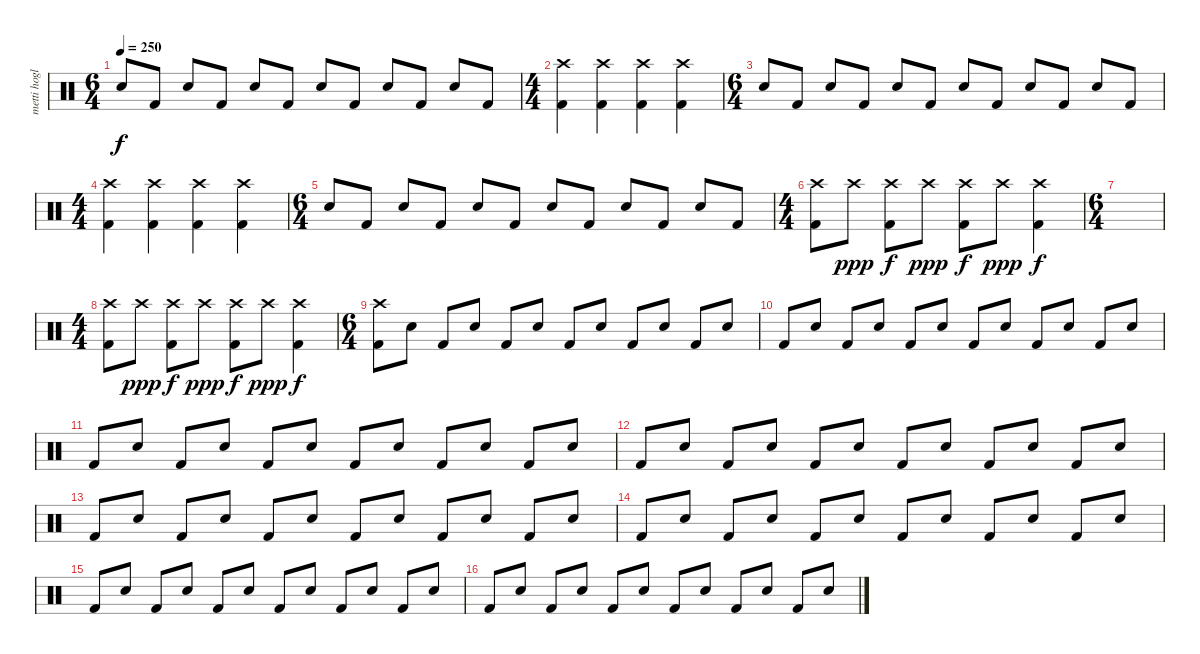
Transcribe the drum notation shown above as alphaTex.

\track ("metti hoglan" "metti hogl") {instrument percussion}
\staff {score}
\articulation defaults
\ts (6 4)
\tempo 250
\clef neutral
\ks c "Snare (hit) 2".8{dy f} "Kick (hit) 2".8 "Snare (hit) 2".8 "Kick (hit) 2".8 "Snare (hit) 2".8 "Kick (hit) 2".8 "Snare (hit) 2".8 "Kick (hit) 2".8 "Snare (hit) 2".8 "Kick (hit) 2".8 "Snare (hit) 2".8 "Kick (hit) 2".8
|
\ts (4 4)
("Crash high (hit)" "Kick (hit) 2").4 ("Crash high (hit)" "Kick (hit) 2").4 ("Crash high (hit)" "Kick (hit) 2").4 ("Crash high (hit)" "Kick (hit) 2").4 |
\ts (6 4)
"Snare (hit) 2".8 "Kick (hit) 2".8 "Snare (hit) 2".8 "Kick (hit) 2".8 "Snare (hit) 2".8 "Kick (hit) 2".8 "Snare (hit) 2".8 "Kick (hit) 2".8 "Snare (hit) 2".8 "Kick (hit) 2".8 "Snare (hit) 2".8 "Kick (hit) 2".8 |
\ts (4 4)
("Crash high (hit)" "Kick (hit) 2").4 ("Crash high (hit)" "Kick (hit) 2").4 ("Crash high (hit)" "Kick (hit) 2").4 ("Crash high (hit)" "Kick (hit) 2").4 |
\ts (6 4)
"Snare (hit) 2".8 "Kick (hit) 2".8 "Snare (hit) 2".8 "Kick (hit) 2".8 "Snare (hit) 2".8 "Kick (hit) 2".8 "Snare (hit) 2".8 "Kick (hit) 2".8 "Snare (hit) 2".8 "Kick (hit) 2".8 "Snare (hit) 2".8 "Kick (hit) 2".8 |
\ts (4 4)
("Crash high (hit)" "Kick (hit) 2").8 "Crash high (hit)".8{dy ppp} ("Crash high (hit)" "Kick (hit) 2").8{dy f} "Crash high (hit)".8{dy ppp} ("Crash high (hit)" "Kick (hit) 2").8{dy f} "Crash high (hit)".8{dy ppp} ("Crash high (hit)" "Kick (hit) 2").4{dy f} |
\ts (6 4)
|
\ts (4 4)
("Crash high (hit)" "Kick (hit) 2").8 "Crash high (hit)".8{dy ppp} ("Crash high (hit)" "Kick (hit) 2").8{dy f} "Crash high (hit)".8{dy ppp} ("Crash high (hit)" "Kick (hit) 2").8{dy f} "Crash high (hit)".8{dy ppp} ("Crash high (hit)" "Kick (hit) 2").4{dy f} |
\ts (6 4)
("Crash high (hit)" "Kick (hit) 2").8 "Snare (hit) 2".8 "Kick (hit) 2".8 "Snare (hit) 2".8 "Kick (hit) 2".8 "Snare (hit) 2".8 "Kick (hit) 2".8 "Snare (hit) 2".8 "Kick (hit) 2".8 "Snare (hit) 2".8 "Kick (hit) 2".8 "Snare (hit) 2".8 |
"Kick (hit) 2".8 "Snare (hit) 2".8 "Kick (hit) 2".8 "Snare (hit) 2".8 "Kick (hit) 2".8 "Snare (hit) 2".8 "Kick (hit) 2".8 "Snare (hit) 2".8 "Kick (hit) 2".8 "Snare (hit) 2".8 "Kick (hit) 2".8 "Snare (hit) 2".8 |
"Kick (hit) 2".8 "Snare (hit) 2".8 "Kick (hit) 2".8 "Snare (hit) 2".8 "Kick (hit) 2".8 "Snare (hit) 2".8 "Kick (hit) 2".8 "Snare (hit) 2".8 "Kick (hit) 2".8 "Snare (hit) 2".8 "Kick (hit) 2".8 "Snare (hit) 2".8 |
"Kick (hit) 2".8 "Snare (hit) 2".8 "Kick (hit) 2".8 "Snare (hit) 2".8 "Kick (hit) 2".8 "Snare (hit) 2".8 "Kick (hit) 2".8 "Snare (hit) 2".8 "Kick (hit) 2".8 "Snare (hit) 2".8 "Kick (hit) 2".8 "Snare (hit) 2".8 |
"Kick (hit) 2".8 "Snare (hit) 2".8 "Kick (hit) 2".8 "Snare (hit) 2".8 "Kick (hit) 2".8 "Snare (hit) 2".8 "Kick (hit) 2".8 "Snare (hit) 2".8 "Kick (hit) 2".8 "Snare (hit) 2".8 "Kick (hit) 2".8 "Snare (hit) 2".8 |
"Kick (hit) 2".8 "Snare (hit) 2".8 "Kick (hit) 2".8 "Snare (hit) 2".8 "Kick (hit) 2".8 "Snare (hit) 2".8 "Kick (hit) 2".8 "Snare (hit) 2".8 "Kick (hit) 2".8 "Snare (hit) 2".8 "Kick (hit) 2".8 "Snare (hit) 2".8 |
"Kick (hit) 2".8 "Snare (hit) 2".8 "Kick (hit) 2".8 "Snare (hit) 2".8 "Kick (hit) 2".8 "Snare (hit) 2".8 "Kick (hit) 2".8 "Snare (hit) 2".8 "Kick (hit) 2".8 "Snare (hit) 2".8 "Kick (hit) 2".8 "Snare (hit) 2".8 |
"Kick (hit) 2".8 "Snare (hit) 2".8 "Kick (hit) 2".8 "Snare (hit) 2".8 "Kick (hit) 2".8 "Snare (hit) 2".8 "Kick (hit) 2".8 "Snare (hit) 2".8 "Kick (hit) 2".8 "Snare (hit) 2".8 "Kick (hit) 2".8 "Snare (hit) 2".8
